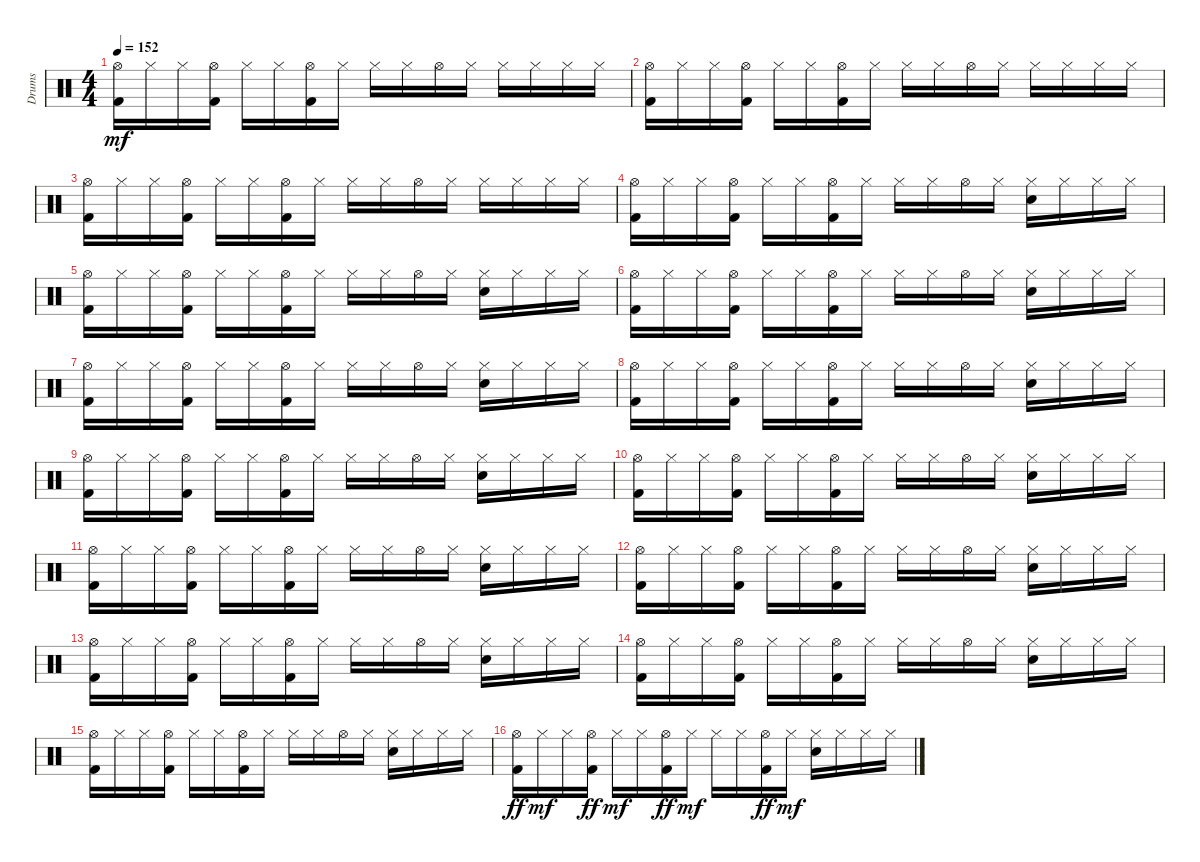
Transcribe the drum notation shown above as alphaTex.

\track ("Drums" "Drums") {instrument percussion}
\staff {score}
\articulation defaults
\ts (4 4)
\tempo 152
\clef neutral
\ks c
("Hi-Hat (open)" "Kick (hit) 2").16{dy mf} "Hi-Hat (closed)".16 "Hi-Hat (closed)".16 ("Hi-Hat (open)" "Kick (hit) 2").16 "Hi-Hat (closed)".16 "Hi-Hat (closed)".16 ("Hi-Hat (open)" "Kick (hit) 2").16 "Hi-Hat (closed)".16 "Hi-Hat (closed)".16 "Hi-Hat (closed)".16 "Hi-Hat (open)".16 "Hi-Hat (closed)".16 "Hi-Hat (closed)".16 "Hi-Hat (closed)".16 "Hi-Hat (closed)".16 "Hi-Hat (closed)".16 |
("Hi-Hat (open)" "Kick (hit) 2").16 "Hi-Hat (closed)".16 "Hi-Hat (closed)".16 ("Hi-Hat (open)" "Kick (hit) 2").16 "Hi-Hat (closed)".16 "Hi-Hat (closed)".16 ("Hi-Hat (open)" "Kick (hit) 2").16 "Hi-Hat (closed)".16 "Hi-Hat (closed)".16 "Hi-Hat (closed)".16 "Hi-Hat (open)".16 "Hi-Hat (closed)".16 "Hi-Hat (closed)".16 "Hi-Hat (closed)".16 "Hi-Hat (closed)".16 "Hi-Hat (closed)".16 |
("Hi-Hat (open)" "Kick (hit) 2").16 "Hi-Hat (closed)".16 "Hi-Hat (closed)".16 ("Hi-Hat (open)" "Kick (hit) 2").16 "Hi-Hat (closed)".16 "Hi-Hat (closed)".16 ("Hi-Hat (open)" "Kick (hit) 2").16 "Hi-Hat (closed)".16 "Hi-Hat (closed)".16 "Hi-Hat (closed)".16 "Hi-Hat (open)".16 "Hi-Hat (closed)".16 "Hi-Hat (closed)".16 "Hi-Hat (closed)".16 "Hi-Hat (closed)".16 "Hi-Hat (closed)".16 |
("Hi-Hat (open)" "Kick (hit) 2").16 "Hi-Hat (closed)".16 "Hi-Hat (closed)".16 ("Hi-Hat (open)" "Kick (hit) 2").16 "Hi-Hat (closed)".16 "Hi-Hat (closed)".16 ("Hi-Hat (open)" "Kick (hit) 2").16 "Hi-Hat (closed)".16 "Hi-Hat (closed)".16 "Hi-Hat (closed)".16 "Hi-Hat (open)".16 "Hi-Hat (closed)".16 ("Hi-Hat (closed)" "Snare (hit) 2").16 "Hi-Hat (closed)".16 "Hi-Hat (closed)".16 "Hi-Hat (closed)".16 |
("Hi-Hat (open)" "Kick (hit) 2").16 "Hi-Hat (closed)".16 "Hi-Hat (closed)".16 ("Hi-Hat (open)" "Kick (hit) 2").16 "Hi-Hat (closed)".16 "Hi-Hat (closed)".16 ("Hi-Hat (open)" "Kick (hit) 2").16 "Hi-Hat (closed)".16 "Hi-Hat (closed)".16 "Hi-Hat (closed)".16 "Hi-Hat (open)".16 "Hi-Hat (closed)".16 ("Hi-Hat (closed)" "Snare (hit) 2").16 "Hi-Hat (closed)".16 "Hi-Hat (closed)".16 "Hi-Hat (closed)".16 |
("Hi-Hat (open)" "Kick (hit) 2").16 "Hi-Hat (closed)".16 "Hi-Hat (closed)".16 ("Hi-Hat (open)" "Kick (hit) 2").16 "Hi-Hat (closed)".16 "Hi-Hat (closed)".16 ("Hi-Hat (open)" "Kick (hit) 2").16 "Hi-Hat (closed)".16 "Hi-Hat (closed)".16 "Hi-Hat (closed)".16 "Hi-Hat (open)".16 "Hi-Hat (closed)".16 ("Hi-Hat (closed)" "Snare (hit) 2").16 "Hi-Hat (closed)".16 "Hi-Hat (closed)".16 "Hi-Hat (closed)".16 |
("Hi-Hat (open)" "Kick (hit) 2").16 "Hi-Hat (closed)".16 "Hi-Hat (closed)".16 ("Hi-Hat (open)" "Kick (hit) 2").16 "Hi-Hat (closed)".16 "Hi-Hat (closed)".16 ("Hi-Hat (open)" "Kick (hit) 2").16 "Hi-Hat (closed)".16 "Hi-Hat (closed)".16 "Hi-Hat (closed)".16 "Hi-Hat (open)".16 "Hi-Hat (closed)".16 ("Hi-Hat (closed)" "Snare (hit) 2").16 "Hi-Hat (closed)".16 "Hi-Hat (closed)".16 "Hi-Hat (closed)".16 |
("Hi-Hat (open)" "Kick (hit) 2").16 "Hi-Hat (closed)".16 "Hi-Hat (closed)".16 ("Hi-Hat (open)" "Kick (hit) 2").16 "Hi-Hat (closed)".16 "Hi-Hat (closed)".16 ("Hi-Hat (open)" "Kick (hit) 2").16 "Hi-Hat (closed)".16 "Hi-Hat (closed)".16 "Hi-Hat (closed)".16 "Hi-Hat (open)".16 "Hi-Hat (closed)".16 ("Hi-Hat (closed)" "Snare (hit) 2").16 "Hi-Hat (closed)".16 "Hi-Hat (closed)".16 "Hi-Hat (closed)".16 |
("Hi-Hat (open)" "Kick (hit) 2").16 "Hi-Hat (closed)".16 "Hi-Hat (closed)".16 ("Hi-Hat (open)" "Kick (hit) 2").16 "Hi-Hat (closed)".16 "Hi-Hat (closed)".16 ("Hi-Hat (open)" "Kick (hit) 2").16 "Hi-Hat (closed)".16 "Hi-Hat (closed)".16 "Hi-Hat (closed)".16 "Hi-Hat (open)".16 "Hi-Hat (closed)".16 ("Hi-Hat (closed)" "Snare (hit) 2").16 "Hi-Hat (closed)".16 "Hi-Hat (closed)".16 "Hi-Hat (closed)".16 |
("Hi-Hat (open)" "Kick (hit) 2").16 "Hi-Hat (closed)".16 "Hi-Hat (closed)".16 ("Hi-Hat (open)" "Kick (hit) 2").16 "Hi-Hat (closed)".16 "Hi-Hat (closed)".16 ("Hi-Hat (open)" "Kick (hit) 2").16 "Hi-Hat (closed)".16 "Hi-Hat (closed)".16 "Hi-Hat (closed)".16 "Hi-Hat (open)".16 "Hi-Hat (closed)".16 ("Hi-Hat (closed)" "Snare (hit) 2").16 "Hi-Hat (closed)".16 "Hi-Hat (closed)".16 "Hi-Hat (closed)".16 |
("Hi-Hat (open)" "Kick (hit) 2").16 "Hi-Hat (closed)".16 "Hi-Hat (closed)".16 ("Hi-Hat (open)" "Kick (hit) 2").16 "Hi-Hat (closed)".16 "Hi-Hat (closed)".16 ("Hi-Hat (open)" "Kick (hit) 2").16 "Hi-Hat (closed)".16 "Hi-Hat (closed)".16 "Hi-Hat (closed)".16 "Hi-Hat (open)".16 "Hi-Hat (closed)".16 ("Hi-Hat (closed)" "Snare (hit) 2").16 "Hi-Hat (closed)".16 "Hi-Hat (closed)".16 "Hi-Hat (closed)".16 |
("Hi-Hat (open)" "Kick (hit) 2").16 "Hi-Hat (closed)".16 "Hi-Hat (closed)".16 ("Hi-Hat (open)" "Kick (hit) 2").16 "Hi-Hat (closed)".16 "Hi-Hat (closed)".16 ("Hi-Hat (open)" "Kick (hit) 2").16 "Hi-Hat (closed)".16 "Hi-Hat (closed)".16 "Hi-Hat (closed)".16 "Hi-Hat (open)".16 "Hi-Hat (closed)".16 ("Hi-Hat (closed)" "Snare (hit) 2").16 "Hi-Hat (closed)".16 "Hi-Hat (closed)".16 "Hi-Hat (closed)".16 |
("Hi-Hat (open)" "Kick (hit) 2").16 "Hi-Hat (closed)".16 "Hi-Hat (closed)".16 ("Hi-Hat (open)" "Kick (hit) 2").16 "Hi-Hat (closed)".16 "Hi-Hat (closed)".16 ("Hi-Hat (open)" "Kick (hit) 2").16 "Hi-Hat (closed)".16 "Hi-Hat (closed)".16 "Hi-Hat (closed)".16 "Hi-Hat (open)".16 "Hi-Hat (closed)".16 ("Hi-Hat (closed)" "Snare (hit) 2").16 "Hi-Hat (closed)".16 "Hi-Hat (closed)".16 "Hi-Hat (closed)".16 |
("Hi-Hat (open)" "Kick (hit) 2").16 "Hi-Hat (closed)".16 "Hi-Hat (closed)".16 ("Hi-Hat (open)" "Kick (hit) 2").16 "Hi-Hat (closed)".16 "Hi-Hat (closed)".16 ("Hi-Hat (open)" "Kick (hit) 2").16 "Hi-Hat (closed)".16 "Hi-Hat (closed)".16 "Hi-Hat (closed)".16 "Hi-Hat (open)".16 "Hi-Hat (closed)".16 ("Hi-Hat (closed)" "Snare (hit) 2").16 "Hi-Hat (closed)".16 "Hi-Hat (closed)".16 "Hi-Hat (closed)".16 |
("Hi-Hat (open)" "Kick (hit) 2").16 "Hi-Hat (closed)".16 "Hi-Hat (closed)".16 ("Hi-Hat (open)" "Kick (hit) 2").16 "Hi-Hat (closed)".16 "Hi-Hat (closed)".16 ("Hi-Hat (open)" "Kick (hit) 2").16 "Hi-Hat (closed)".16 "Hi-Hat (closed)".16 "Hi-Hat (closed)".16 "Hi-Hat (open)".16 "Hi-Hat (closed)".16 ("Hi-Hat (closed)" "Snare (hit) 2").16 "Hi-Hat (closed)".16 "Hi-Hat (closed)".16 "Hi-Hat (closed)".16 |
("Hi-Hat (open)" "Kick (hit) 2").16{dy ff} "Hi-Hat (closed)".16{dy mf} "Hi-Hat (closed)".16 ("Hi-Hat (open)" "Kick (hit) 2").16{dy ff} "Hi-Hat (closed)".16{dy mf} "Hi-Hat (closed)".16 ("Hi-Hat (open)" "Kick (hit) 2").16{dy ff} "Hi-Hat (closed)".16{dy mf} "Hi-Hat (closed)".16 "Hi-Hat (closed)".16 ("Hi-Hat (open)" "Kick (hit) 2").16{dy ff} "Hi-Hat (closed)".16{dy mf} ("Hi-Hat (closed)" "Snare (hit) 2").16 "Hi-Hat (closed)".16 "Hi-Hat (closed)".16 "Hi-Hat (closed)".16
